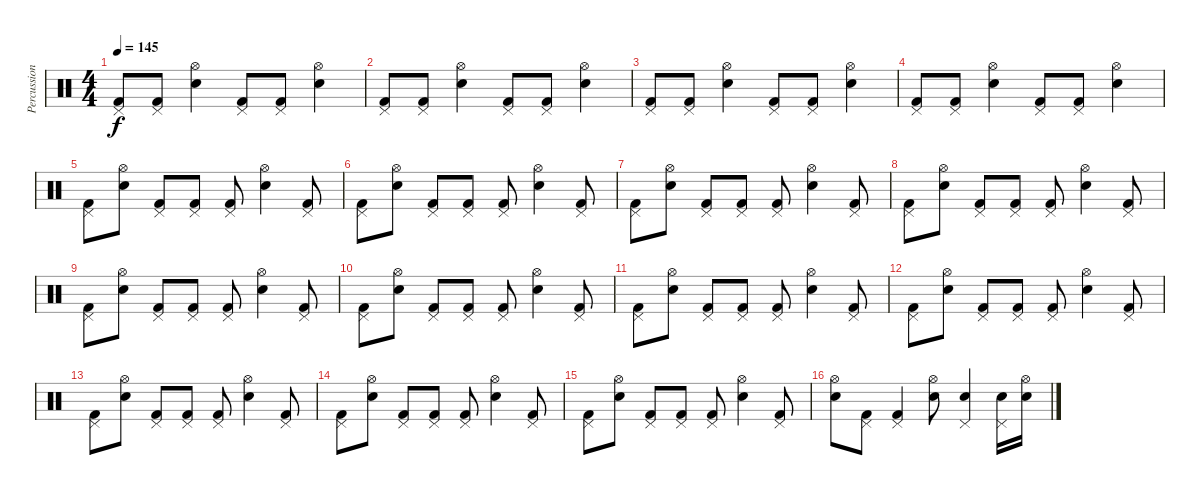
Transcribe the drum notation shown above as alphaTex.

\track ("Percussion" "Percussion") {instrument percussion}
\staff {score}
\articulation defaults
\ts (4 4)
\tempo 145
\clef neutral
\ks c
("Pedal Hi-Hat (hit)" "Kick (hit) 2").8{dy f} ("Pedal Hi-Hat (hit)" "Kick (hit) 2").8 ("Hi-Hat (open)" "Snare (hit) 2").4 ("Pedal Hi-Hat (hit)" "Kick (hit) 2").8 ("Pedal Hi-Hat (hit)" "Kick (hit) 2").8 ("Hi-Hat (open)" "Snare (hit) 2").4 |
("Pedal Hi-Hat (hit)" "Kick (hit) 2").8 ("Pedal Hi-Hat (hit)" "Kick (hit) 2").8 ("Hi-Hat (open)" "Snare (hit) 2").4 ("Pedal Hi-Hat (hit)" "Kick (hit) 2").8 ("Pedal Hi-Hat (hit)" "Kick (hit) 2").8 ("Hi-Hat (open)" "Snare (hit) 2").4 |
("Pedal Hi-Hat (hit)" "Kick (hit) 2").8 ("Pedal Hi-Hat (hit)" "Kick (hit) 2").8 ("Hi-Hat (open)" "Snare (hit) 2").4 ("Pedal Hi-Hat (hit)" "Kick (hit) 2").8 ("Pedal Hi-Hat (hit)" "Kick (hit) 2").8 ("Hi-Hat (open)" "Snare (hit) 2").4 |
("Pedal Hi-Hat (hit)" "Kick (hit) 2").8 ("Pedal Hi-Hat (hit)" "Kick (hit) 2").8 ("Hi-Hat (open)" "Snare (hit) 2").4 ("Pedal Hi-Hat (hit)" "Kick (hit) 2").8 ("Pedal Hi-Hat (hit)" "Kick (hit) 2").8 ("Hi-Hat (open)" "Snare (hit) 2").4 |
("Pedal Hi-Hat (hit)" "Kick (hit) 2").8 ("Hi-Hat (open)" "Snare (hit) 2").8 ("Pedal Hi-Hat (hit)" "Kick (hit) 2").8 ("Pedal Hi-Hat (hit)" "Kick (hit) 2").8 ("Pedal Hi-Hat (hit)" "Kick (hit) 2").8 ("Hi-Hat (open)" "Snare (hit) 2").4 ("Pedal Hi-Hat (hit)" "Kick (hit) 2").8 |
("Pedal Hi-Hat (hit)" "Kick (hit) 2").8 ("Hi-Hat (open)" "Snare (hit) 2").8 ("Pedal Hi-Hat (hit)" "Kick (hit) 2").8 ("Pedal Hi-Hat (hit)" "Kick (hit) 2").8 ("Pedal Hi-Hat (hit)" "Kick (hit) 2").8 ("Hi-Hat (open)" "Snare (hit) 2").4 ("Pedal Hi-Hat (hit)" "Kick (hit) 2").8 |
("Pedal Hi-Hat (hit)" "Kick (hit) 2").8 ("Hi-Hat (open)" "Snare (hit) 2").8 ("Pedal Hi-Hat (hit)" "Kick (hit) 2").8 ("Pedal Hi-Hat (hit)" "Kick (hit) 2").8 ("Pedal Hi-Hat (hit)" "Kick (hit) 2").8 ("Hi-Hat (open)" "Snare (hit) 2").4 ("Pedal Hi-Hat (hit)" "Kick (hit) 2").8 |
("Pedal Hi-Hat (hit)" "Kick (hit) 2").8 ("Hi-Hat (open)" "Snare (hit) 2").8 ("Pedal Hi-Hat (hit)" "Kick (hit) 2").8 ("Pedal Hi-Hat (hit)" "Kick (hit) 2").8 ("Pedal Hi-Hat (hit)" "Kick (hit) 2").8 ("Hi-Hat (open)" "Snare (hit) 2").4 ("Pedal Hi-Hat (hit)" "Kick (hit) 2").8 |
("Pedal Hi-Hat (hit)" "Kick (hit) 2").8 ("Hi-Hat (open)" "Snare (hit) 2").8 ("Pedal Hi-Hat (hit)" "Kick (hit) 2").8 ("Pedal Hi-Hat (hit)" "Kick (hit) 2").8 ("Pedal Hi-Hat (hit)" "Kick (hit) 2").8 ("Hi-Hat (open)" "Snare (hit) 2").4 ("Pedal Hi-Hat (hit)" "Kick (hit) 2").8 |
("Pedal Hi-Hat (hit)" "Kick (hit) 2").8 ("Hi-Hat (open)" "Snare (hit) 2").8 ("Pedal Hi-Hat (hit)" "Kick (hit) 2").8 ("Pedal Hi-Hat (hit)" "Kick (hit) 2").8 ("Pedal Hi-Hat (hit)" "Kick (hit) 2").8 ("Hi-Hat (open)" "Snare (hit) 2").4 ("Pedal Hi-Hat (hit)" "Kick (hit) 2").8 |
("Pedal Hi-Hat (hit)" "Kick (hit) 2").8 ("Hi-Hat (open)" "Snare (hit) 2").8 ("Pedal Hi-Hat (hit)" "Kick (hit) 2").8 ("Pedal Hi-Hat (hit)" "Kick (hit) 2").8 ("Pedal Hi-Hat (hit)" "Kick (hit) 2").8 ("Hi-Hat (open)" "Snare (hit) 2").4 ("Pedal Hi-Hat (hit)" "Kick (hit) 2").8 |
("Pedal Hi-Hat (hit)" "Kick (hit) 2").8 ("Hi-Hat (open)" "Snare (hit) 2").8 ("Pedal Hi-Hat (hit)" "Kick (hit) 2").8 ("Pedal Hi-Hat (hit)" "Kick (hit) 2").8 ("Pedal Hi-Hat (hit)" "Kick (hit) 2").8 ("Hi-Hat (open)" "Snare (hit) 2").4 ("Pedal Hi-Hat (hit)" "Kick (hit) 2").8 |
("Pedal Hi-Hat (hit)" "Kick (hit) 2").8 ("Hi-Hat (open)" "Snare (hit) 2").8 ("Pedal Hi-Hat (hit)" "Kick (hit) 2").8 ("Pedal Hi-Hat (hit)" "Kick (hit) 2").8 ("Pedal Hi-Hat (hit)" "Kick (hit) 2").8 ("Hi-Hat (open)" "Snare (hit) 2").4 ("Pedal Hi-Hat (hit)" "Kick (hit) 2").8 |
("Pedal Hi-Hat (hit)" "Kick (hit) 2").8 ("Hi-Hat (open)" "Snare (hit) 2").8 ("Pedal Hi-Hat (hit)" "Kick (hit) 2").8 ("Pedal Hi-Hat (hit)" "Kick (hit) 2").8 ("Pedal Hi-Hat (hit)" "Kick (hit) 2").8 ("Hi-Hat (open)" "Snare (hit) 2").4 ("Pedal Hi-Hat (hit)" "Kick (hit) 2").8 |
("Pedal Hi-Hat (hit)" "Kick (hit) 2").8 ("Hi-Hat (open)" "Snare (hit) 2").8 ("Pedal Hi-Hat (hit)" "Kick (hit) 2").8 ("Pedal Hi-Hat (hit)" "Kick (hit) 2").8 ("Pedal Hi-Hat (hit)" "Kick (hit) 2").8 ("Hi-Hat (open)" "Snare (hit) 2").4 ("Pedal Hi-Hat (hit)" "Kick (hit) 2").8 |
("Hi-Hat (open)" "Snare (hit) 2").8 ("Pedal Hi-Hat (hit)" "Kick (hit) 2").8 ("Pedal Hi-Hat (hit)" "Kick (hit) 2").4 ("Hi-Hat (open)" "Snare (hit) 2").8 ("Pedal Hi-Hat (hit)" "Snare (hit) 2").4 ("Pedal Hi-Hat (hit)" "Snare (hit) 2").16 ("Hi-Hat (open)" "Snare (hit) 2").16
